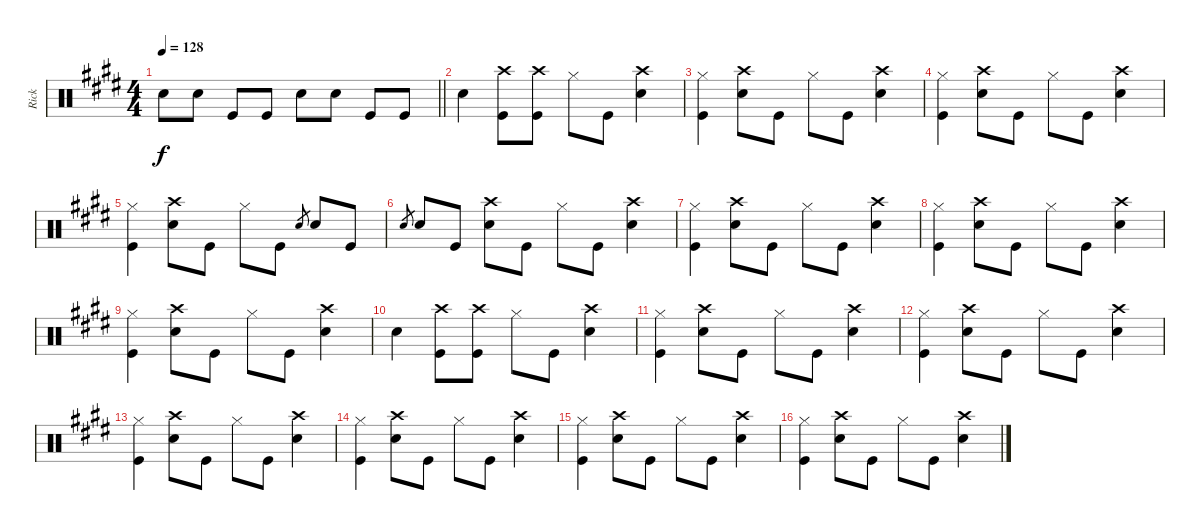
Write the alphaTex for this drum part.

\track ("Rick" "Rick") {instrument percussion}
\staff {score}
\articulation defaults
\ts (4 4)
\tempo 128
\clef neutral
\barLineRight lightlight
\ks c#minor "Snare (hit) 2".8{dy f} "Snare (hit) 2".8 "Kick (hit)".8 "Kick (hit)".8 "Snare (hit) 2".8 "Snare (hit) 2".8 "Kick (hit)".8 "Kick (hit)".8
|
"Snare (hit) 2".4 ("Crash high (hit)" "Kick (hit)").8 ("Crash high (hit)" "Kick (hit)").8 "Hi-Hat (closed)".8 "Kick (hit)".8 ("Crash high (hit)" "Snare (hit) 2").4 |
("Hi-Hat (closed)" "Kick (hit)").4 ("Crash high (hit)" "Snare (hit) 2").8 "Kick (hit)".8 "Hi-Hat (closed)".8 "Kick (hit)".8 ("Crash high (hit)" "Snare (hit) 2").4 |
("Hi-Hat (closed)" "Kick (hit)").4 ("Crash high (hit)" "Snare (hit) 2").8 "Kick (hit)".8 "Hi-Hat (closed)".8 "Kick (hit)".8 ("Crash high (hit)" "Snare (hit) 2").4 |
("Hi-Hat (closed)" "Kick (hit)").4 ("Crash high (hit)" "Snare (hit) 2").8 "Kick (hit)".8 "Hi-Hat (closed)".8 "Kick (hit)".8 "Snare (hit) 2".8{gr} "Snare (hit) 2".8 "Kick (hit)".8 |
"Snare (hit) 2".8{gr} "Snare (hit) 2".8 "Kick (hit)".8 ("Crash high (hit)" "Snare (hit) 2").8 "Kick (hit)".8 "Hi-Hat (closed)".8 "Kick (hit)".8 ("Crash high (hit)" "Snare (hit) 2").4 |
("Hi-Hat (closed)" "Kick (hit)").4 ("Crash high (hit)" "Snare (hit) 2").8 "Kick (hit)".8 "Hi-Hat (closed)".8 "Kick (hit)".8 ("Crash high (hit)" "Snare (hit) 2").4 |
("Hi-Hat (closed)" "Kick (hit)").4 ("Crash high (hit)" "Snare (hit) 2").8 "Kick (hit)".8 "Hi-Hat (closed)".8 "Kick (hit)".8 ("Crash high (hit)" "Snare (hit) 2").4 |
("Hi-Hat (closed)" "Kick (hit)").4 ("Crash high (hit)" "Snare (hit) 2").8 "Kick (hit)".8 "Hi-Hat (closed)".8 "Kick (hit)".8 ("Crash high (hit)" "Snare (hit) 2").4 |
"Snare (hit) 2".4 ("Crash high (hit)" "Kick (hit)").8 ("Crash high (hit)" "Kick (hit)").8 "Hi-Hat (closed)".8 "Kick (hit)".8 ("Crash high (hit)" "Snare (hit) 2").4 |
("Hi-Hat (closed)" "Kick (hit)").4 ("Crash high (hit)" "Snare (hit) 2").8 "Kick (hit)".8 "Hi-Hat (closed)".8 "Kick (hit)".8 ("Crash high (hit)" "Snare (hit) 2").4 |
("Hi-Hat (closed)" "Kick (hit)").4 ("Crash high (hit)" "Snare (hit) 2").8 "Kick (hit)".8 "Hi-Hat (closed)".8 "Kick (hit)".8 ("Crash high (hit)" "Snare (hit) 2").4 |
("Hi-Hat (closed)" "Kick (hit)").4 ("Crash high (hit)" "Snare (hit) 2").8 "Kick (hit)".8 "Hi-Hat (closed)".8 "Kick (hit)".8 ("Crash high (hit)" "Snare (hit) 2").4 |
("Hi-Hat (closed)" "Kick (hit)").4 ("Crash high (hit)" "Snare (hit) 2").8 "Kick (hit)".8 "Hi-Hat (closed)".8 "Kick (hit)".8 ("Crash high (hit)" "Snare (hit) 2").4 |
("Hi-Hat (closed)" "Kick (hit)").4 ("Crash high (hit)" "Snare (hit) 2").8 "Kick (hit)".8 "Hi-Hat (closed)".8 "Kick (hit)".8 ("Crash high (hit)" "Snare (hit) 2").4 |
("Hi-Hat (closed)" "Kick (hit)").4 ("Crash high (hit)" "Snare (hit) 2").8 "Kick (hit)".8 "Hi-Hat (closed)".8 "Kick (hit)".8 ("Crash high (hit)" "Snare (hit) 2").4
